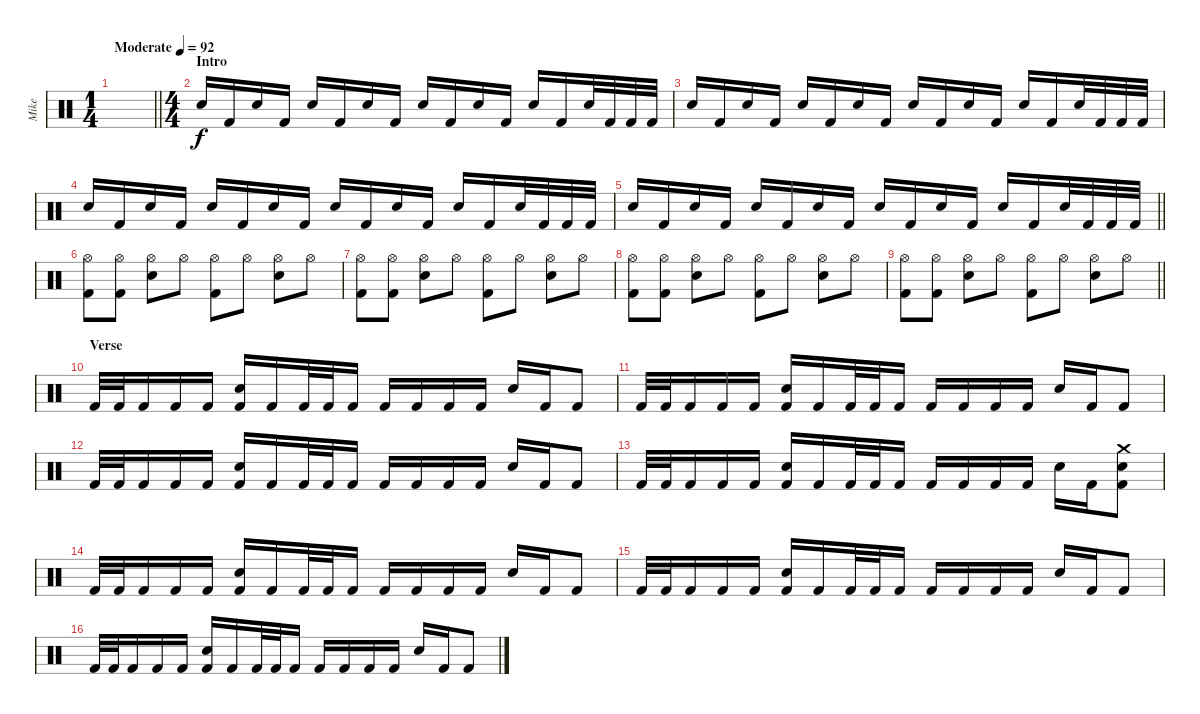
\track ("Mike" "Mike") {instrument percussion}
\staff {score}
\articulation defaults
\ts (1 4)
\tempo (92 "Moderate")
\clef neutral
\barLineRight lightlight
\ks c
|
\ts (4 4)
\section ("" "Intro")
"Electric Snare (hit)".16{volume 12} "Kick (hit) 2".16 "Electric Snare (hit)".16 "Kick (hit) 2".16 "Electric Snare (hit)".16 "Kick (hit) 2".16 "Electric Snare (hit)".16 "Kick (hit) 2".16 "Electric Snare (hit)".16 "Kick (hit) 2".16 "Electric Snare (hit)".16 "Kick (hit) 2".16 "Electric Snare (hit)".16 "Kick (hit) 2".16 "Electric Snare (hit)".32 "Kick (hit) 2".32 "Kick (hit) 2".32 "Kick (hit) 2".32 |
"Electric Snare (hit)".16{volume 16} "Kick (hit) 2".16 "Electric Snare (hit)".16 "Kick (hit) 2".16 "Electric Snare (hit)".16 "Kick (hit) 2".16 "Electric Snare (hit)".16 "Kick (hit) 2".16 "Electric Snare (hit)".16 "Kick (hit) 2".16 "Electric Snare (hit)".16 "Kick (hit) 2".16 "Electric Snare (hit)".16 "Kick (hit) 2".16 "Electric Snare (hit)".32 "Kick (hit) 2".32 "Kick (hit) 2".32 "Kick (hit) 2".32 |
"Electric Snare (hit)".16{volume 16} "Kick (hit) 2".16 "Electric Snare (hit)".16 "Kick (hit) 2".16 "Electric Snare (hit)".16 "Kick (hit) 2".16 "Electric Snare (hit)".16 "Kick (hit) 2".16 "Electric Snare (hit)".16 "Kick (hit) 2".16 "Electric Snare (hit)".16 "Kick (hit) 2".16 "Electric Snare (hit)".16 "Kick (hit) 2".16 "Electric Snare (hit)".32 "Kick (hit) 2".32 "Kick (hit) 2".32 "Kick (hit) 2".32 |
\barLineRight lightlight "Electric Snare (hit)".16{volume 16} "Kick (hit) 2".16 "Electric Snare (hit)".16 "Kick (hit) 2".16 "Electric Snare (hit)".16 "Kick (hit) 2".16 "Electric Snare (hit)".16 "Kick (hit) 2".16 "Electric Snare (hit)".16 "Kick (hit) 2".16 "Electric Snare (hit)".16 "Kick (hit) 2".16 "Electric Snare (hit)".16 "Kick (hit) 2".16 "Electric Snare (hit)".32 "Kick (hit) 2".32 "Kick (hit) 2".32 "Kick (hit) 2".32
|
("Kick (hit) 2" "Hi-Hat (open)").8 ("Kick (hit) 2" "Hi-Hat (open)").8 ("Electric Snare (hit)" "Hi-Hat (open)").8 "Hi-Hat (open)".8 ("Kick (hit) 2" "Hi-Hat (open)").8 "Hi-Hat (open)".8 ("Electric Snare (hit)" "Hi-Hat (open)").8 "Hi-Hat (open)".8 |
("Kick (hit) 2" "Hi-Hat (open)").8 ("Kick (hit) 2" "Hi-Hat (open)").8 ("Electric Snare (hit)" "Hi-Hat (open)").8 "Hi-Hat (open)".8 ("Kick (hit) 2" "Hi-Hat (open)").8 "Hi-Hat (open)".8 ("Electric Snare (hit)" "Hi-Hat (open)").8 "Hi-Hat (open)".8 |
("Kick (hit) 2" "Hi-Hat (open)").8 ("Kick (hit) 2" "Hi-Hat (open)").8 ("Electric Snare (hit)" "Hi-Hat (open)").8 "Hi-Hat (open)".8 ("Kick (hit) 2" "Hi-Hat (open)").8 "Hi-Hat (open)".8 ("Electric Snare (hit)" "Hi-Hat (open)").8 "Hi-Hat (open)".8 |
\barLineRight lightlight
("Kick (hit) 2" "Hi-Hat (open)").8 ("Kick (hit) 2" "Hi-Hat (open)").8 ("Electric Snare (hit)" "Hi-Hat (open)").8 "Hi-Hat (open)".8 ("Kick (hit) 2" "Hi-Hat (open)").8 "Hi-Hat (open)".8 ("Electric Snare (hit)" "Hi-Hat (open)").8 "Hi-Hat (open)".8 |
\section ("" "Verse")
"Kick (hit) 2".32 "Kick (hit) 2".32 "Kick (hit) 2".16 "Kick (hit) 2".16 "Kick (hit) 2".16 ("Kick (hit) 2" "Electric Snare (hit)").16 "Kick (hit) 2".16 "Kick (hit) 2".32 "Kick (hit) 2".32 "Kick (hit) 2".16 "Kick (hit) 2".16 "Kick (hit) 2".16 "Kick (hit) 2".16 "Kick (hit) 2".16 "Electric Snare (hit)".16 "Kick (hit) 2".16 "Kick (hit) 2".8 |
"Kick (hit) 2".32 "Kick (hit) 2".32 "Kick (hit) 2".16 "Kick (hit) 2".16 "Kick (hit) 2".16 ("Kick (hit) 2" "Electric Snare (hit)").16 "Kick (hit) 2".16 "Kick (hit) 2".32 "Kick (hit) 2".32 "Kick (hit) 2".16 "Kick (hit) 2".16 "Kick (hit) 2".16 "Kick (hit) 2".16 "Kick (hit) 2".16 "Electric Snare (hit)".16 "Kick (hit) 2".16 "Kick (hit) 2".8 |
"Kick (hit) 2".32 "Kick (hit) 2".32 "Kick (hit) 2".16 "Kick (hit) 2".16 "Kick (hit) 2".16 ("Kick (hit) 2" "Electric Snare (hit)").16 "Kick (hit) 2".16 "Kick (hit) 2".32 "Kick (hit) 2".32 "Kick (hit) 2".16 "Kick (hit) 2".16 "Kick (hit) 2".16 "Kick (hit) 2".16 "Kick (hit) 2".16 "Electric Snare (hit)".16 "Kick (hit) 2".16 "Kick (hit) 2".8 |
"Kick (hit) 2".32 "Kick (hit) 2".32 "Kick (hit) 2".16 "Kick (hit) 2".16 "Kick (hit) 2".16 ("Kick (hit) 2" "Electric Snare (hit)").16 "Kick (hit) 2".16 "Kick (hit) 2".32 "Kick (hit) 2".32 "Kick (hit) 2".16 "Kick (hit) 2".16 "Kick (hit) 2".16 "Kick (hit) 2".16 "Kick (hit) 2".16 "Electric Snare (hit)".16 "Kick (hit) 2".16 ("Kick (hit) 2" "Electric Snare (hit)" "Crash medium (hit)").8 |
"Kick (hit) 2".32 "Kick (hit) 2".32 "Kick (hit) 2".16 "Kick (hit) 2".16 "Kick (hit) 2".16 ("Kick (hit) 2" "Electric Snare (hit)").16 "Kick (hit) 2".16 "Kick (hit) 2".32 "Kick (hit) 2".32 "Kick (hit) 2".16 "Kick (hit) 2".16 "Kick (hit) 2".16 "Kick (hit) 2".16 "Kick (hit) 2".16 "Electric Snare (hit)".16 "Kick (hit) 2".16 "Kick (hit) 2".8 |
"Kick (hit) 2".32 "Kick (hit) 2".32 "Kick (hit) 2".16 "Kick (hit) 2".16 "Kick (hit) 2".16 ("Kick (hit) 2" "Electric Snare (hit)").16 "Kick (hit) 2".16 "Kick (hit) 2".32 "Kick (hit) 2".32 "Kick (hit) 2".16 "Kick (hit) 2".16 "Kick (hit) 2".16 "Kick (hit) 2".16 "Kick (hit) 2".16 "Electric Snare (hit)".16 "Kick (hit) 2".16 "Kick (hit) 2".8 |
"Kick (hit) 2".32 "Kick (hit) 2".32 "Kick (hit) 2".16 "Kick (hit) 2".16 "Kick (hit) 2".16 ("Kick (hit) 2" "Electric Snare (hit)").16 "Kick (hit) 2".16 "Kick (hit) 2".32 "Kick (hit) 2".32 "Kick (hit) 2".16 "Kick (hit) 2".16 "Kick (hit) 2".16 "Kick (hit) 2".16 "Kick (hit) 2".16 "Electric Snare (hit)".16 "Kick (hit) 2".16 "Kick (hit) 2".8
